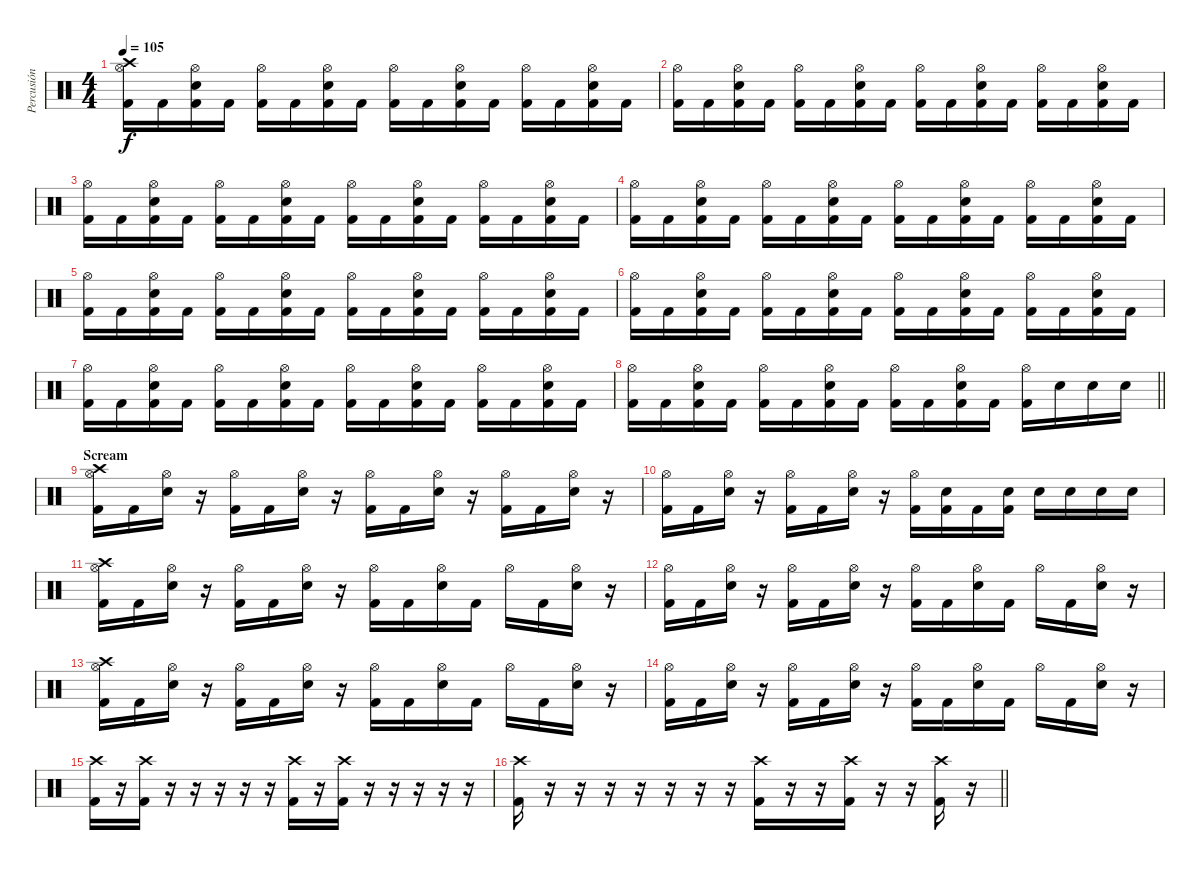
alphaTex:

\track ("Percusión" "Percusión") {instrument percussion}
\staff {score}
\articulation defaults
\ts (4 4)
\tempo 105
\clef neutral
\ks c
("Crash high (hit)" "Hi-Hat (open)" "Kick (hit) 2").16{dy f} "Kick (hit) 2".16 ("Hi-Hat (open)" "Snare (hit) 2" "Kick (hit) 2").16 "Kick (hit) 2".16 ("Hi-Hat (open)" "Kick (hit) 2").16 "Kick (hit) 2".16 ("Hi-Hat (open)" "Snare (hit) 2" "Kick (hit) 2").16 "Kick (hit) 2".16 ("Hi-Hat (open)" "Kick (hit) 2").16 "Kick (hit) 2".16 ("Hi-Hat (open)" "Snare (hit) 2" "Kick (hit) 2").16 "Kick (hit) 2".16 ("Hi-Hat (open)" "Kick (hit) 2").16 "Kick (hit) 2".16 ("Hi-Hat (open)" "Snare (hit) 2" "Kick (hit) 2").16 "Kick (hit) 2".16 |
("Hi-Hat (open)" "Kick (hit) 2").16 "Kick (hit) 2".16 ("Hi-Hat (open)" "Snare (hit) 2" "Kick (hit) 2").16 "Kick (hit) 2".16 ("Hi-Hat (open)" "Kick (hit) 2").16 "Kick (hit) 2".16 ("Hi-Hat (open)" "Snare (hit) 2" "Kick (hit) 2").16 "Kick (hit) 2".16 ("Hi-Hat (open)" "Kick (hit) 2").16 "Kick (hit) 2".16 ("Hi-Hat (open)" "Snare (hit) 2" "Kick (hit) 2").16 "Kick (hit) 2".16 ("Hi-Hat (open)" "Kick (hit) 2").16 "Kick (hit) 2".16 ("Hi-Hat (open)" "Snare (hit) 2" "Kick (hit) 2").16 "Kick (hit) 2".16 |
("Hi-Hat (open)" "Kick (hit) 2").16 "Kick (hit) 2".16 ("Hi-Hat (open)" "Snare (hit) 2" "Kick (hit) 2").16 "Kick (hit) 2".16 ("Hi-Hat (open)" "Kick (hit) 2").16 "Kick (hit) 2".16 ("Hi-Hat (open)" "Snare (hit) 2" "Kick (hit) 2").16 "Kick (hit) 2".16 ("Hi-Hat (open)" "Kick (hit) 2").16 "Kick (hit) 2".16 ("Hi-Hat (open)" "Snare (hit) 2" "Kick (hit) 2").16 "Kick (hit) 2".16 ("Hi-Hat (open)" "Kick (hit) 2").16 "Kick (hit) 2".16 ("Hi-Hat (open)" "Snare (hit) 2" "Kick (hit) 2").16 "Kick (hit) 2".16 |
("Hi-Hat (open)" "Kick (hit) 2").16 "Kick (hit) 2".16 ("Hi-Hat (open)" "Snare (hit) 2" "Kick (hit) 2").16 "Kick (hit) 2".16 ("Hi-Hat (open)" "Kick (hit) 2").16 "Kick (hit) 2".16 ("Hi-Hat (open)" "Snare (hit) 2" "Kick (hit) 2").16 "Kick (hit) 2".16 ("Hi-Hat (open)" "Kick (hit) 2").16 "Kick (hit) 2".16 ("Hi-Hat (open)" "Snare (hit) 2" "Kick (hit) 2").16 "Kick (hit) 2".16 ("Hi-Hat (open)" "Kick (hit) 2").16 "Kick (hit) 2".16 ("Hi-Hat (open)" "Snare (hit) 2" "Kick (hit) 2").16 "Kick (hit) 2".16 |
("Hi-Hat (open)" "Kick (hit) 2").16 "Kick (hit) 2".16 ("Hi-Hat (open)" "Snare (hit) 2" "Kick (hit) 2").16 "Kick (hit) 2".16 ("Hi-Hat (open)" "Kick (hit) 2").16 "Kick (hit) 2".16 ("Hi-Hat (open)" "Snare (hit) 2" "Kick (hit) 2").16 "Kick (hit) 2".16 ("Hi-Hat (open)" "Kick (hit) 2").16 "Kick (hit) 2".16 ("Hi-Hat (open)" "Snare (hit) 2" "Kick (hit) 2").16 "Kick (hit) 2".16 ("Hi-Hat (open)" "Kick (hit) 2").16 "Kick (hit) 2".16 ("Hi-Hat (open)" "Snare (hit) 2" "Kick (hit) 2").16 "Kick (hit) 2".16 |
("Hi-Hat (open)" "Kick (hit) 2").16 "Kick (hit) 2".16 ("Hi-Hat (open)" "Snare (hit) 2" "Kick (hit) 2").16 "Kick (hit) 2".16 ("Hi-Hat (open)" "Kick (hit) 2").16 "Kick (hit) 2".16 ("Hi-Hat (open)" "Snare (hit) 2" "Kick (hit) 2").16 "Kick (hit) 2".16 ("Hi-Hat (open)" "Kick (hit) 2").16 "Kick (hit) 2".16 ("Hi-Hat (open)" "Snare (hit) 2" "Kick (hit) 2").16 "Kick (hit) 2".16 ("Hi-Hat (open)" "Kick (hit) 2").16 "Kick (hit) 2".16 ("Hi-Hat (open)" "Snare (hit) 2" "Kick (hit) 2").16 "Kick (hit) 2".16 |
("Hi-Hat (open)" "Kick (hit) 2").16 "Kick (hit) 2".16 ("Hi-Hat (open)" "Snare (hit) 2" "Kick (hit) 2").16 "Kick (hit) 2".16 ("Hi-Hat (open)" "Kick (hit) 2").16 "Kick (hit) 2".16 ("Hi-Hat (open)" "Snare (hit) 2" "Kick (hit) 2").16 "Kick (hit) 2".16 ("Hi-Hat (open)" "Kick (hit) 2").16 "Kick (hit) 2".16 ("Hi-Hat (open)" "Snare (hit) 2" "Kick (hit) 2").16 "Kick (hit) 2".16 ("Hi-Hat (open)" "Kick (hit) 2").16 "Kick (hit) 2".16 ("Hi-Hat (open)" "Snare (hit) 2" "Kick (hit) 2").16 "Kick (hit) 2".16 |
\barLineRight lightlight
("Hi-Hat (open)" "Kick (hit) 2").16 "Kick (hit) 2".16 ("Hi-Hat (open)" "Snare (hit) 2" "Kick (hit) 2").16 "Kick (hit) 2".16 ("Hi-Hat (open)" "Kick (hit) 2").16 "Kick (hit) 2".16 ("Hi-Hat (open)" "Snare (hit) 2" "Kick (hit) 2").16 "Kick (hit) 2".16 ("Hi-Hat (open)" "Kick (hit) 2").16 "Kick (hit) 2".16 ("Hi-Hat (open)" "Snare (hit) 2" "Kick (hit) 2").16 "Kick (hit) 2".16 ("Hi-Hat (open)" "Kick (hit) 2").16 "Snare (hit) 2".16 "Snare (hit) 2".16 "Snare (hit) 2".16 |
\section ("" "Scream")
("Crash high (hit)" "Hi-Hat (open)" "Kick (hit) 2").16 "Kick (hit) 2".16 ("Hi-Hat (open)" "Snare (hit) 2").16 r.16 ("Hi-Hat (open)" "Kick (hit) 2").16 "Kick (hit) 2".16 ("Hi-Hat (open)" "Snare (hit) 2").16 r.16 ("Hi-Hat (open)" "Kick (hit) 2").16 "Kick (hit) 2".16 ("Hi-Hat (open)" "Snare (hit) 2").16 r.16 ("Hi-Hat (open)" "Kick (hit) 2").16 "Kick (hit) 2".16 ("Hi-Hat (open)" "Snare (hit) 2").16 r.16 |
("Hi-Hat (open)" "Kick (hit) 2").16 "Kick (hit) 2".16 ("Hi-Hat (open)" "Snare (hit) 2").16 r.16 ("Hi-Hat (open)" "Kick (hit) 2").16 "Kick (hit) 2".16 ("Hi-Hat (open)" "Snare (hit) 2").16 r.16 ("Hi-Hat (open)" "Kick (hit) 2").16 ("Snare (hit) 2" "Kick (hit) 2").16 "Kick (hit) 2".16 ("Snare (hit) 2" "Kick (hit) 2").16 "Snare (hit) 2".16 "Snare (hit) 2".16 "Snare (hit) 2".16 "Snare (hit) 2".16 |
("Crash high (hit)" "Hi-Hat (open)" "Kick (hit) 2").16 "Kick (hit) 2".16 ("Hi-Hat (open)" "Snare (hit) 2").16 r.16 ("Hi-Hat (open)" "Kick (hit) 2").16 "Kick (hit) 2".16 ("Hi-Hat (open)" "Snare (hit) 2").16 r.16 ("Hi-Hat (open)" "Kick (hit) 2").16 "Kick (hit) 2".16 ("Hi-Hat (open)" "Snare (hit) 2").16 "Kick (hit) 2".16 "Hi-Hat (open)".16 "Kick (hit) 2".16 ("Hi-Hat (open)" "Snare (hit) 2").16 r.16 |
("Hi-Hat (open)" "Kick (hit) 2").16 "Kick (hit) 2".16 ("Hi-Hat (open)" "Snare (hit) 2").16 r.16 ("Hi-Hat (open)" "Kick (hit) 2").16 "Kick (hit) 2".16 ("Hi-Hat (open)" "Snare (hit) 2").16 r.16 ("Hi-Hat (open)" "Kick (hit) 2").16 "Kick (hit) 2".16 ("Hi-Hat (open)" "Snare (hit) 2").16 "Kick (hit) 2".16 "Hi-Hat (open)".16 "Kick (hit) 2".16 ("Hi-Hat (open)" "Snare (hit) 2").16 r.16 |
("Crash high (hit)" "Hi-Hat (open)" "Kick (hit) 2").16 "Kick (hit) 2".16 ("Hi-Hat (open)" "Snare (hit) 2").16 r.16 ("Hi-Hat (open)" "Kick (hit) 2").16 "Kick (hit) 2".16 ("Hi-Hat (open)" "Snare (hit) 2").16 r.16 ("Hi-Hat (open)" "Kick (hit) 2").16 "Kick (hit) 2".16 ("Hi-Hat (open)" "Snare (hit) 2").16 "Kick (hit) 2".16 "Hi-Hat (open)".16 "Kick (hit) 2".16 ("Hi-Hat (open)" "Snare (hit) 2").16 r.16 |
("Hi-Hat (open)" "Kick (hit) 2").16 "Kick (hit) 2".16 ("Hi-Hat (open)" "Snare (hit) 2").16 r.16 ("Hi-Hat (open)" "Kick (hit) 2").16 "Kick (hit) 2".16 ("Hi-Hat (open)" "Snare (hit) 2").16 r.16 ("Hi-Hat (open)" "Kick (hit) 2").16 "Kick (hit) 2".16 ("Hi-Hat (open)" "Snare (hit) 2").16 "Kick (hit) 2".16 "Hi-Hat (open)".16 "Kick (hit) 2".16 ("Hi-Hat (open)" "Snare (hit) 2").16 r.16 |
("Crash high (hit)" "Kick (hit) 2").16 r.16 ("Crash high (hit)" "Kick (hit) 2").16 r.16 r.16 r.16 r.16 r.16 ("Crash high (hit)" "Kick (hit) 2").16 r.16 ("Crash high (hit)" "Kick (hit) 2").16 r.16 r.16 r.16 r.16 r.16 |
\barLineRight lightlight
("Crash high (hit)" "Kick (hit) 2").16 r.16 r.16 r.16 r.16 r.16 r.16 r.16 ("Crash high (hit)" "Kick (hit) 2").16 r.16 r.16 ("Crash high (hit)" "Kick (hit) 2").16 r.16 r.16 ("Crash high (hit)" "Kick (hit) 2").16 r.16
